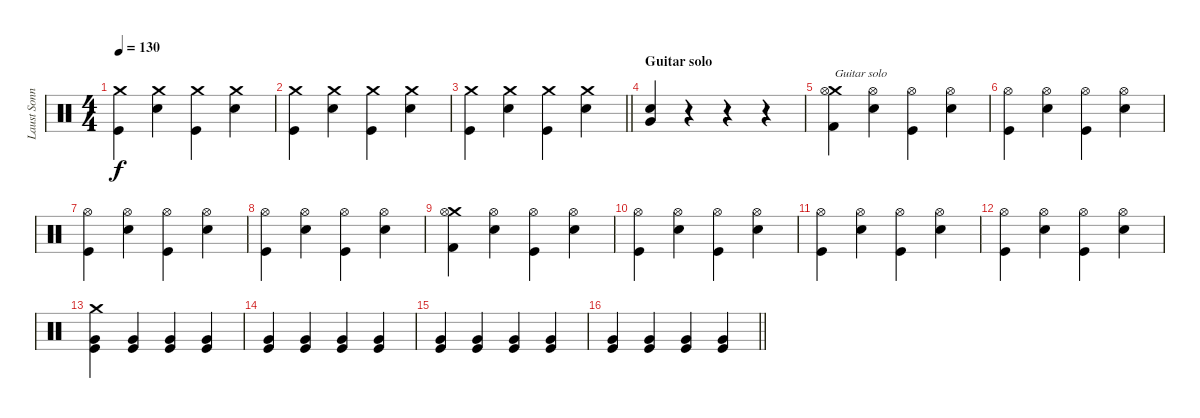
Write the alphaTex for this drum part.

\track ("Laust Sonne (Trommer)" "Laust Sonn") {instrument percussion}
\staff {score}
\articulation defaults
\ts (4 4)
\tempo 130
\clef neutral
\ks c
("Crash medium (hit)" "Kick (hit)").4{dy f} ("Crash medium (hit)" "Snare (hit) 2").4 ("Crash medium (hit)" "Kick (hit)").4 ("Crash medium (hit)" "Snare (hit) 2").4 |
("Crash medium (hit)" "Kick (hit)").4 ("Crash medium (hit)" "Snare (hit) 2").4 ("Crash medium (hit)" "Kick (hit)").4 ("Crash medium (hit)" "Snare (hit) 2").4 |
\barLineRight lightlight
("Crash medium (hit)" "Kick (hit)").4 ("Crash medium (hit)" "Snare (hit) 2").4 ("Crash medium (hit)" "Kick (hit)").4 ("Crash medium (hit)" "Snare (hit) 2").4 |
\section ("" "Guitar solo")
("Very Low Tom (hit)" "Snare (hit) 2").4 r.4 r.4 r.4 |
("Crash medium (hit)" "Hi-Hat (open)" "Kick (hit) 2").4{txt "Guitar solo"} ("Hi-Hat (open)" "Snare (hit) 2").4 ("Hi-Hat (open)" "Kick (hit)").4 ("Hi-Hat (open)" "Snare (hit) 2").4 |
("Hi-Hat (open)" "Kick (hit)").4 ("Hi-Hat (open)" "Snare (hit) 2").4 ("Hi-Hat (open)" "Kick (hit)").4 ("Hi-Hat (open)" "Snare (hit) 2").4 |
("Hi-Hat (open)" "Kick (hit)").4 ("Hi-Hat (open)" "Snare (hit) 2").4 ("Hi-Hat (open)" "Kick (hit)").4 ("Hi-Hat (open)" "Snare (hit) 2").4 |
("Hi-Hat (open)" "Kick (hit)").4 ("Hi-Hat (open)" "Snare (hit) 2").4 ("Hi-Hat (open)" "Kick (hit)").4 ("Hi-Hat (open)" "Snare (hit) 2").4 |
("Crash medium (hit)" "Hi-Hat (open)" "Kick (hit) 2").4 ("Hi-Hat (open)" "Snare (hit) 2").4 ("Hi-Hat (open)" "Kick (hit)").4 ("Hi-Hat (open)" "Snare (hit) 2").4 |
("Hi-Hat (open)" "Kick (hit)").4 ("Hi-Hat (open)" "Snare (hit) 2").4 ("Hi-Hat (open)" "Kick (hit)").4 ("Hi-Hat (open)" "Snare (hit) 2").4 |
("Hi-Hat (open)" "Kick (hit)").4 ("Hi-Hat (open)" "Snare (hit) 2").4 ("Hi-Hat (open)" "Kick (hit)").4 ("Hi-Hat (open)" "Snare (hit) 2").4 |
("Hi-Hat (open)" "Kick (hit)").4 ("Hi-Hat (open)" "Snare (hit) 2").4 ("Hi-Hat (open)" "Kick (hit)").4 ("Hi-Hat (open)" "Snare (hit) 2").4 |
("Very Low Tom (hit)" "Kick (hit)" "Crash medium (hit)").4 ("Very Low Tom (hit)" "Kick (hit)").4 ("Very Low Tom (hit)" "Kick (hit)").4 ("Very Low Tom (hit)" "Kick (hit)").4 |
("Very Low Tom (hit)" "Kick (hit)").4 ("Very Low Tom (hit)" "Kick (hit)").4 ("Very Low Tom (hit)" "Kick (hit)").4 ("Very Low Tom (hit)" "Kick (hit)").4 |
("Very Low Tom (hit)" "Kick (hit)").4 ("Very Low Tom (hit)" "Kick (hit)").4 ("Very Low Tom (hit)" "Kick (hit)").4 ("Very Low Tom (hit)" "Kick (hit)").4 |
\barLineRight lightlight
("Very Low Tom (hit)" "Kick (hit)").4 ("Very Low Tom (hit)" "Kick (hit)").4 ("Very Low Tom (hit)" "Kick (hit)").4 ("Very Low Tom (hit)" "Kick (hit)").4
